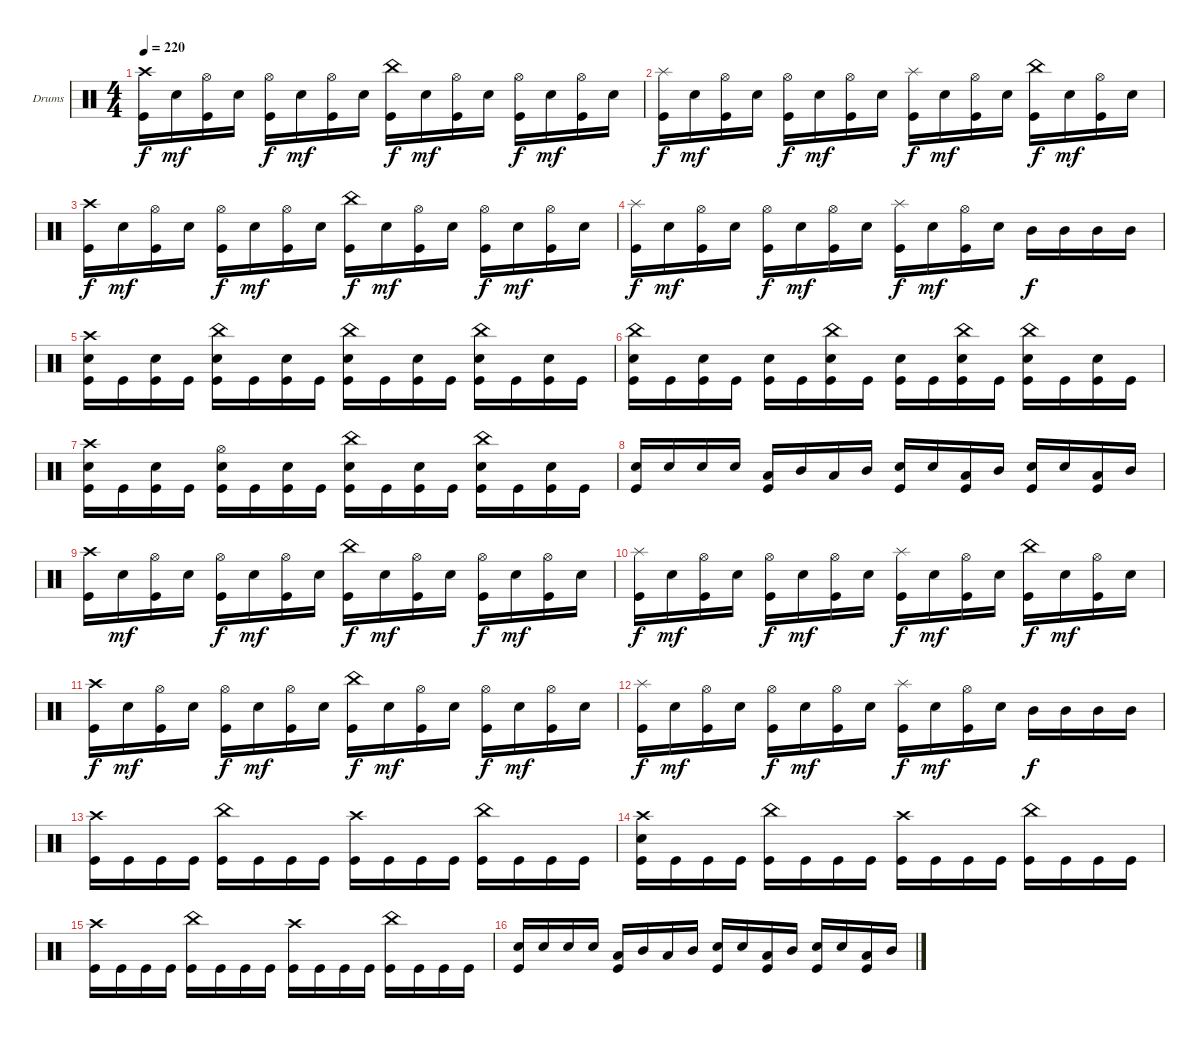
\defaultSystemsLayout 4
\bracketExtendMode groupsimilarinstruments
\firstSystemTrackNameOrientation horizontal
\otherSystemsTrackNameOrientation horizontal
\track ("Drumkit" "Drums") {instrument percussion}
\staff {score}
\articulation defaults
\ts (4 4)
\tempo 220
\clef neutral
\scale
0.333333
\ks c
("Crash high (hit)" "Kick (hit)").16{dy f} "Snare (hit) 2".16{dy mf} ("Hi-Hat (open)" "Kick (hit)").16 "Snare (hit) 2".16 ("Hi-Hat (open)" "Kick (hit)").16{dy f} "Snare (hit) 2".16{dy mf} ("Hi-Hat (open)" "Kick (hit)").16 "Snare (hit) 2".16 ("China (hit)" "Kick (hit)").16{dy f} "Snare (hit) 2".16{dy mf} ("Hi-Hat (open)" "Kick (hit)").16 "Snare (hit) 2".16 ("Hi-Hat (open)" "Kick (hit)").16{dy f} "Snare (hit) 2".16{dy mf} ("Hi-Hat (open)" "Kick (hit)").16 "Snare (hit) 2".16 |
\scale
0.333333 ("Splash (hit)" "Kick (hit)").16{dy f} "Snare (hit) 2".16{dy mf} ("Hi-Hat (open)" "Kick (hit)").16 "Snare (hit) 2".16 ("Hi-Hat (open)" "Kick (hit)").16{dy f} "Snare (hit) 2".16{dy mf} ("Hi-Hat (open)" "Kick (hit)").16 "Snare (hit) 2".16 ("Splash (hit)" "Kick (hit)").16{dy f} "Snare (hit) 2".16{dy mf} ("Hi-Hat (open)" "Kick (hit)").16 "Snare (hit) 2".16 ("China (hit)" "Kick (hit)").16{dy f} "Snare (hit) 2".16{dy mf} ("Hi-Hat (open)" "Kick (hit)").16 "Snare (hit) 2".16 |
\scale
0.333333 ("Crash high (hit)" "Kick (hit)").16{dy f} "Snare (hit) 2".16{dy mf} ("Hi-Hat (open)" "Kick (hit)").16 "Snare (hit) 2".16 ("Hi-Hat (open)" "Kick (hit)").16{dy f} "Snare (hit) 2".16{dy mf} ("Hi-Hat (open)" "Kick (hit)").16 "Snare (hit) 2".16 ("China (hit)" "Kick (hit)").16{dy f} "Snare (hit) 2".16{dy mf} ("Hi-Hat (open)" "Kick (hit)").16 "Snare (hit) 2".16 ("Hi-Hat (open)" "Kick (hit)").16{dy f} "Snare (hit) 2".16{dy mf} ("Hi-Hat (open)" "Kick (hit)").16 "Snare (hit) 2".16 |
\scale
0.333333 ("Splash (hit)" "Kick (hit)").16{dy f} "Snare (hit) 2".16{dy mf} ("Hi-Hat (open)" "Kick (hit)").16 "Snare (hit) 2".16 ("Hi-Hat (open)" "Kick (hit)").16{dy f} "Snare (hit) 2".16{dy mf} ("Hi-Hat (open)" "Kick (hit)").16 "Snare (hit) 2".16 ("Splash (hit)" "Kick (hit)").16{dy f} "Snare (hit) 2".16{dy mf} ("Hi-Hat (open)" "Kick (hit)").16 "Snare (hit) 2".16 "Mid Tom (hit)".16{dy f} "Mid Tom (hit)".16 "Mid Tom (hit)".16 "Mid Tom (hit)".16 |
\scale
0.333333 ("Crash high (hit)" "Snare (hit) 2" "Kick (hit)").16 "Kick (hit)".16 ("Snare (hit) 2" "Kick (hit)").16 "Kick (hit)".16 ("China (hit)" "Snare (hit) 2" "Kick (hit)").16 "Kick (hit)".16 ("Snare (hit) 2" "Kick (hit)").16 "Kick (hit)".16 ("China (hit)" "Snare (hit) 2" "Kick (hit)").16 "Kick (hit)".16 ("Snare (hit) 2" "Kick (hit)").16 "Kick (hit)".16 ("China (hit)" "Snare (hit) 2" "Kick (hit)").16 "Kick (hit)".16 ("Snare (hit) 2" "Kick (hit)").16 "Kick (hit)".16 |
\scale
0.333333 ("China (hit)" "Snare (hit) 2" "Kick (hit)").16 "Kick (hit)".16 ("Snare (hit) 2" "Kick (hit)").16 "Kick (hit)".16 ("Snare (hit) 2" "Kick (hit)").16 "Kick (hit)".16 ("China (hit)" "Snare (hit) 2" "Kick (hit)").16 "Kick (hit)".16 ("Snare (hit) 2" "Kick (hit)").16 "Kick (hit)".16 ("China (hit)" "Snare (hit) 2" "Kick (hit)").16 "Kick (hit)".16 ("China (hit)" "Snare (hit) 2" "Kick (hit)").16 "Kick (hit)".16 ("Snare (hit) 2" "Kick (hit)").16 "Kick (hit)".16 |
\scale
0.333333 ("Crash high (hit)" "Snare (hit) 2" "Kick (hit)").16 "Kick (hit)".16 ("Snare (hit) 2" "Kick (hit)").16 "Kick (hit)".16 ("Hi-Hat (open)" "Snare (hit) 2" "Kick (hit)").16 "Kick (hit)".16 ("Snare (hit) 2" "Kick (hit)").16 "Kick (hit)".16 ("China (hit)" "Snare (hit) 2" "Kick (hit)").16 "Kick (hit)".16 ("Snare (hit) 2" "Kick (hit)").16 "Kick (hit)".16 ("China (hit)" "Snare (hit) 2" "Kick (hit)").16 "Kick (hit)".16 ("Snare (hit) 2" "Kick (hit)").16 "Kick (hit)".16 |
\scale
0.333333 ("Snare (hit) 2" "Kick (hit)").16 "Snare (hit) 2".16 "Snare (hit) 2".16 "Snare (hit) 2".16 ("Low Tom (hit)" "Kick (hit)").16 "Mid Tom (hit)".16 "Low Tom (hit)".16 "Mid Tom (hit)".16 ("Snare (hit) 2" "Kick (hit)").16 "Snare (hit) 2".16 ("Low Tom (hit)" "Kick (hit)").16 "Mid Tom (hit)".16 ("Snare (hit) 2" "Kick (hit)").16 "Snare (hit) 2".16 ("Low Tom (hit)" "Kick (hit)").16 "Mid Tom (hit)".16 |
\scale
0.333333 ("Crash high (hit)" "Kick (hit)").16 "Snare (hit) 2".16{dy mf} ("Hi-Hat (open)" "Kick (hit)").16 "Snare (hit) 2".16 ("Hi-Hat (open)" "Kick (hit)").16{dy f} "Snare (hit) 2".16{dy mf} ("Hi-Hat (open)" "Kick (hit)").16 "Snare (hit) 2".16 ("China (hit)" "Kick (hit)").16{dy f} "Snare (hit) 2".16{dy mf} ("Hi-Hat (open)" "Kick (hit)").16 "Snare (hit) 2".16 ("Hi-Hat (open)" "Kick (hit)").16{dy f} "Snare (hit) 2".16{dy mf} ("Hi-Hat (open)" "Kick (hit)").16 "Snare (hit) 2".16 |
\scale
0.333333 ("Splash (hit)" "Kick (hit)").16{dy f} "Snare (hit) 2".16{dy mf} ("Hi-Hat (open)" "Kick (hit)").16 "Snare (hit) 2".16 ("Hi-Hat (open)" "Kick (hit)").16{dy f} "Snare (hit) 2".16{dy mf} ("Hi-Hat (open)" "Kick (hit)").16 "Snare (hit) 2".16 ("Splash (hit)" "Kick (hit)").16{dy f} "Snare (hit) 2".16{dy mf} ("Hi-Hat (open)" "Kick (hit)").16 "Snare (hit) 2".16 ("China (hit)" "Kick (hit)").16{dy f} "Snare (hit) 2".16{dy mf} ("Hi-Hat (open)" "Kick (hit)").16 "Snare (hit) 2".16 |
\scale
0.333333 ("Crash high (hit)" "Kick (hit)").16{dy f} "Snare (hit) 2".16{dy mf} ("Hi-Hat (open)" "Kick (hit)").16 "Snare (hit) 2".16 ("Hi-Hat (open)" "Kick (hit)").16{dy f} "Snare (hit) 2".16{dy mf} ("Hi-Hat (open)" "Kick (hit)").16 "Snare (hit) 2".16 ("China (hit)" "Kick (hit)").16{dy f} "Snare (hit) 2".16{dy mf} ("Hi-Hat (open)" "Kick (hit)").16 "Snare (hit) 2".16 ("Hi-Hat (open)" "Kick (hit)").16{dy f} "Snare (hit) 2".16{dy mf} ("Hi-Hat (open)" "Kick (hit)").16 "Snare (hit) 2".16 |
\scale
0.333333 ("Splash (hit)" "Kick (hit)").16{dy f} "Snare (hit) 2".16{dy mf} ("Hi-Hat (open)" "Kick (hit)").16 "Snare (hit) 2".16 ("Hi-Hat (open)" "Kick (hit)").16{dy f} "Snare (hit) 2".16{dy mf} ("Hi-Hat (open)" "Kick (hit)").16 "Snare (hit) 2".16 ("Splash (hit)" "Kick (hit)").16{dy f} "Snare (hit) 2".16{dy mf} ("Hi-Hat (open)" "Kick (hit)").16 "Snare (hit) 2".16 "Mid Tom (hit)".16{dy f} "Mid Tom (hit)".16 "Mid Tom (hit)".16 "Mid Tom (hit)".16 |
\scale
0.333333 ("Crash high (hit)" "Kick (hit)").16 "Kick (hit)".16 "Kick (hit)".16 "Kick (hit)".16 ("China (hit)" "Kick (hit)").16 "Kick (hit)".16 "Kick (hit)".16 "Kick (hit)".16 ("Crash high (hit)" "Kick (hit)").16 "Kick (hit)".16 "Kick (hit)".16 "Kick (hit)".16 ("China (hit)" "Kick (hit)").16 "Kick (hit)".16 "Kick (hit)".16 "Kick (hit)".16 |
\scale
0.333333 ("Crash high (hit)" "Snare (hit) 2" "Kick (hit)").16 "Kick (hit)".16 "Kick (hit)".16 "Kick (hit)".16 ("China (hit)" "Kick (hit)").16 "Kick (hit)".16 "Kick (hit)".16 "Kick (hit)".16 ("Crash high (hit)" "Kick (hit)").16 "Kick (hit)".16 "Kick (hit)".16 "Kick (hit)".16 ("China (hit)" "Kick (hit)").16 "Kick (hit)".16 "Kick (hit)".16 "Kick (hit)".16 |
\scale
0.333333 ("Crash high (hit)" "Kick (hit)").16 "Kick (hit)".16 "Kick (hit)".16 "Kick (hit)".16 ("China (hit)" "Kick (hit)").16 "Kick (hit)".16 "Kick (hit)".16 "Kick (hit)".16 ("Crash high (hit)" "Kick (hit)").16 "Kick (hit)".16 "Kick (hit)".16 "Kick (hit)".16 ("China (hit)" "Kick (hit)").16 "Kick (hit)".16 "Kick (hit)".16 "Kick (hit)".16 |
\scale
0.333333 ("Snare (hit) 2" "Kick (hit)").16 "Snare (hit) 2".16 "Snare (hit) 2".16 "Snare (hit) 2".16 ("Low Tom (hit)" "Kick (hit)").16 "Mid Tom (hit)".16 "Low Tom (hit)".16 "Mid Tom (hit)".16 ("Snare (hit) 2" "Kick (hit)").16 "Snare (hit) 2".16 ("Low Tom (hit)" "Kick (hit)").16 "Mid Tom (hit)".16 ("Snare (hit) 2" "Kick (hit)").16 "Snare (hit) 2".16 ("Low Tom (hit)" "Kick (hit)").16 "Mid Tom (hit)".16
